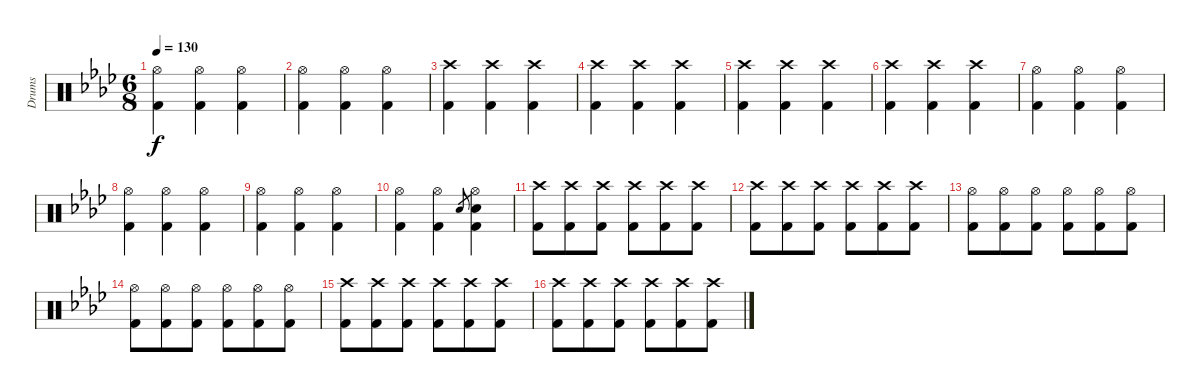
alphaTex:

\track ("Drums" "Drums") {instrument percussion}
\staff {score}
\articulation defaults
\ts (6 8)
\tempo 130
\clef neutral
\ks ab
("Hi-Hat (open)" "Kick (hit) 2").4{dy f} ("Hi-Hat (open)" "Kick (hit) 2").4 ("Hi-Hat (open)" "Kick (hit) 2").4 |
("Hi-Hat (open)" "Kick (hit) 2").4 ("Hi-Hat (open)" "Kick (hit) 2").4 ("Hi-Hat (open)" "Kick (hit) 2").4 |
("Crash high (hit)" "Kick (hit) 2").4 ("Crash high (hit)" "Kick (hit) 2").4 ("Crash high (hit)" "Kick (hit) 2").4 |
("Crash high (hit)" "Kick (hit) 2").4 ("Crash high (hit)" "Kick (hit) 2").4 ("Crash high (hit)" "Kick (hit) 2").4 |
("Crash high (hit)" "Kick (hit) 2").4 ("Crash high (hit)" "Kick (hit) 2").4 ("Crash high (hit)" "Kick (hit) 2").4 |
("Crash high (hit)" "Kick (hit) 2").4 ("Crash high (hit)" "Kick (hit) 2").4 ("Crash high (hit)" "Kick (hit) 2").4 |
("Hi-Hat (open)" "Kick (hit) 2").4 ("Hi-Hat (open)" "Kick (hit) 2").4 ("Hi-Hat (open)" "Kick (hit) 2").4 |
("Hi-Hat (open)" "Kick (hit) 2").4 ("Hi-Hat (open)" "Kick (hit) 2").4 ("Hi-Hat (open)" "Kick (hit) 2").4 |
("Hi-Hat (open)" "Kick (hit) 2").4 ("Hi-Hat (open)" "Kick (hit) 2").4 ("Hi-Hat (open)" "Kick (hit) 2").4 |
("Hi-Hat (open)" "Kick (hit) 2").4 ("Hi-Hat (open)" "Kick (hit) 2").4 "Electric Snare (hit)".8{gr} ("Hi-Hat (open)" "Electric Snare (hit)" "Kick (hit) 2").4 |
("Crash high (hit)" "Kick (hit) 2").8 ("Crash high (hit)" "Kick (hit) 2").8 ("Crash high (hit)" "Kick (hit) 2").8 ("Crash high (hit)" "Kick (hit) 2").8 ("Crash high (hit)" "Kick (hit) 2").8 ("Crash high (hit)" "Kick (hit) 2").8 |
("Crash high (hit)" "Kick (hit) 2").8 ("Crash high (hit)" "Kick (hit) 2").8 ("Crash high (hit)" "Kick (hit) 2").8 ("Crash high (hit)" "Kick (hit) 2").8 ("Crash high (hit)" "Kick (hit) 2").8 ("Crash high (hit)" "Kick (hit) 2").8 |
("Hi-Hat (open)" "Kick (hit) 2").8 ("Hi-Hat (open)" "Kick (hit) 2").8 ("Hi-Hat (open)" "Kick (hit) 2").8 ("Hi-Hat (open)" "Kick (hit) 2").8 ("Hi-Hat (open)" "Kick (hit) 2").8 ("Hi-Hat (open)" "Kick (hit) 2").8 |
("Hi-Hat (open)" "Kick (hit) 2").8 ("Hi-Hat (open)" "Kick (hit) 2").8 ("Hi-Hat (open)" "Kick (hit) 2").8 ("Hi-Hat (open)" "Kick (hit) 2").8 ("Hi-Hat (open)" "Kick (hit) 2").8 ("Hi-Hat (open)" "Kick (hit) 2").8 |
("Crash high (hit)" "Kick (hit) 2").8 ("Crash high (hit)" "Kick (hit) 2").8 ("Crash high (hit)" "Kick (hit) 2").8 ("Crash high (hit)" "Kick (hit) 2").8 ("Crash high (hit)" "Kick (hit) 2").8 ("Crash high (hit)" "Kick (hit) 2").8 |
("Crash high (hit)" "Kick (hit) 2").8 ("Crash high (hit)" "Kick (hit) 2").8 ("Crash high (hit)" "Kick (hit) 2").8 ("Crash high (hit)" "Kick (hit) 2").8 ("Crash high (hit)" "Kick (hit) 2").8 ("Crash high (hit)" "Kick (hit) 2").8
